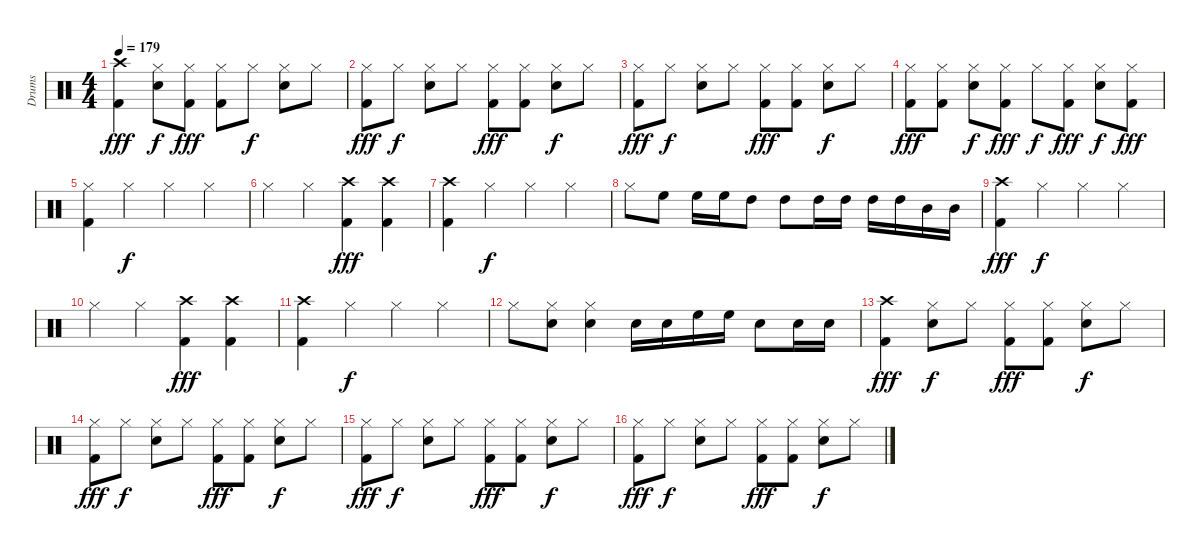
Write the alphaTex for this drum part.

\track ("Drums" "Drums") {instrument percussion}
\staff {score}
\articulation defaults
\ts (4 4)
\tempo 179
\clef neutral
\ks c
("Crash high (hit)" "Kick (hit) 2").4{dy fff} ("Hi-Hat (closed)" "Electric Snare (hit)").8{dy f} ("Hi-Hat (closed)" "Kick (hit) 2").8{dy fff} ("Hi-Hat (closed)" "Kick (hit) 2").8 "Hi-Hat (closed)".8{dy f} ("Hi-Hat (closed)" "Electric Snare (hit)").8 "Hi-Hat (closed)".8 |
("Hi-Hat (closed)" "Kick (hit) 2").8{dy fff} "Hi-Hat (closed)".8{dy f} ("Hi-Hat (closed)" "Electric Snare (hit)").8 "Hi-Hat (closed)".8 ("Hi-Hat (closed)" "Kick (hit) 2").8{dy fff} ("Hi-Hat (closed)" "Kick (hit) 2").8 ("Hi-Hat (closed)" "Electric Snare (hit)").8{dy f} "Hi-Hat (closed)".8 |
("Hi-Hat (closed)" "Kick (hit) 2").8{dy fff} "Hi-Hat (closed)".8{dy f} ("Hi-Hat (closed)" "Electric Snare (hit)").8 "Hi-Hat (closed)".8 ("Hi-Hat (closed)" "Kick (hit) 2").8{dy fff} ("Hi-Hat (closed)" "Kick (hit) 2").8 ("Hi-Hat (closed)" "Electric Snare (hit)").8{dy f} "Hi-Hat (closed)".8 |
("Hi-Hat (closed)" "Kick (hit) 2").8{dy fff} ("Hi-Hat (closed)" "Kick (hit) 2").8 ("Hi-Hat (closed)" "Electric Snare (hit)").8{dy f} ("Hi-Hat (closed)" "Kick (hit) 2").8{dy fff} "Hi-Hat (closed)".8{dy f} ("Hi-Hat (closed)" "Kick (hit) 2").8{dy fff} ("Hi-Hat (closed)" "Electric Snare (hit)").8{dy f} ("Hi-Hat (closed)" "Kick (hit) 2").8{dy fff} |
("Hi-Hat (closed)" "Kick (hit) 2").4 "Hi-Hat (closed)".4{dy f} "Hi-Hat (closed)".4 "Hi-Hat (closed)".4 |
"Hi-Hat (closed)".4 "Hi-Hat (closed)".4 ("Crash high (hit)" "Kick (hit) 2").4{dy fff} ("Crash high (hit)" "Kick (hit) 2").4 |
("Crash high (hit)" "Kick (hit) 2").4 "Hi-Hat (closed)".4{dy f} "Hi-Hat (closed)".4 "Hi-Hat (closed)".4 |
"Hi-Hat (closed)".8 "High Floor Tom (hit)".8 "High Floor Tom (hit)".16 "High Floor Tom (hit)".16 "High Tom (hit)".8 "High Tom (hit)".8 "High Tom (hit)".16 "High Tom (hit)".16 "High Tom (hit)".16 "High Tom (hit)".16 "Mid Tom (hit)".16 "Mid Tom (hit)".16 |
("Crash high (hit)" "Kick (hit) 2").4{dy fff} "Hi-Hat (closed)".4{dy f} "Hi-Hat (closed)".4 "Hi-Hat (closed)".4 |
"Hi-Hat (closed)".4 "Hi-Hat (closed)".4 ("Crash high (hit)" "Kick (hit) 2").4{dy fff} ("Crash high (hit)" "Kick (hit) 2").4 |
("Crash high (hit)" "Kick (hit) 2").4 "Hi-Hat (closed)".4{dy f} "Hi-Hat (closed)".4 "Hi-Hat (closed)".4 |
"Hi-Hat (closed)".8 ("Hi-Hat (closed)" "Electric Snare (hit)").8 ("Hi-Hat (closed)" "Electric Snare (hit)").4 "Electric Snare (hit)".16 "Electric Snare (hit)".16 "High Floor Tom (hit)".16 "High Floor Tom (hit)".16 "Electric Snare (hit)".8 "Electric Snare (hit)".16 "Electric Snare (hit)".16 |
("Crash high (hit)" "Kick (hit) 2").4{dy fff} ("Hi-Hat (closed)" "Electric Snare (hit)").8{dy f} "Hi-Hat (closed)".8 ("Hi-Hat (closed)" "Kick (hit) 2").8{dy fff} ("Hi-Hat (closed)" "Kick (hit) 2").8 ("Hi-Hat (closed)" "Electric Snare (hit)").8{dy f} "Hi-Hat (closed)".8 |
("Hi-Hat (closed)" "Kick (hit) 2").8{dy fff} "Hi-Hat (closed)".8{dy f} ("Hi-Hat (closed)" "Electric Snare (hit)").8 "Hi-Hat (closed)".8 ("Hi-Hat (closed)" "Kick (hit) 2").8{dy fff} ("Hi-Hat (closed)" "Kick (hit) 2").8 ("Hi-Hat (closed)" "Electric Snare (hit)").8{dy f} "Hi-Hat (closed)".8 |
("Hi-Hat (closed)" "Kick (hit) 2").8{dy fff} "Hi-Hat (closed)".8{dy f} ("Hi-Hat (closed)" "Electric Snare (hit)").8 "Hi-Hat (closed)".8 ("Hi-Hat (closed)" "Kick (hit) 2").8{dy fff} ("Hi-Hat (closed)" "Kick (hit) 2").8 ("Hi-Hat (closed)" "Electric Snare (hit)").8{dy f} "Hi-Hat (closed)".8 |
("Hi-Hat (closed)" "Kick (hit) 2").8{dy fff} "Hi-Hat (closed)".8{dy f} ("Hi-Hat (closed)" "Electric Snare (hit)").8 "Hi-Hat (closed)".8 ("Hi-Hat (closed)" "Kick (hit) 2").8{dy fff} ("Hi-Hat (closed)" "Kick (hit) 2").8 ("Hi-Hat (closed)" "Electric Snare (hit)").8{dy f} "Hi-Hat (closed)".8
